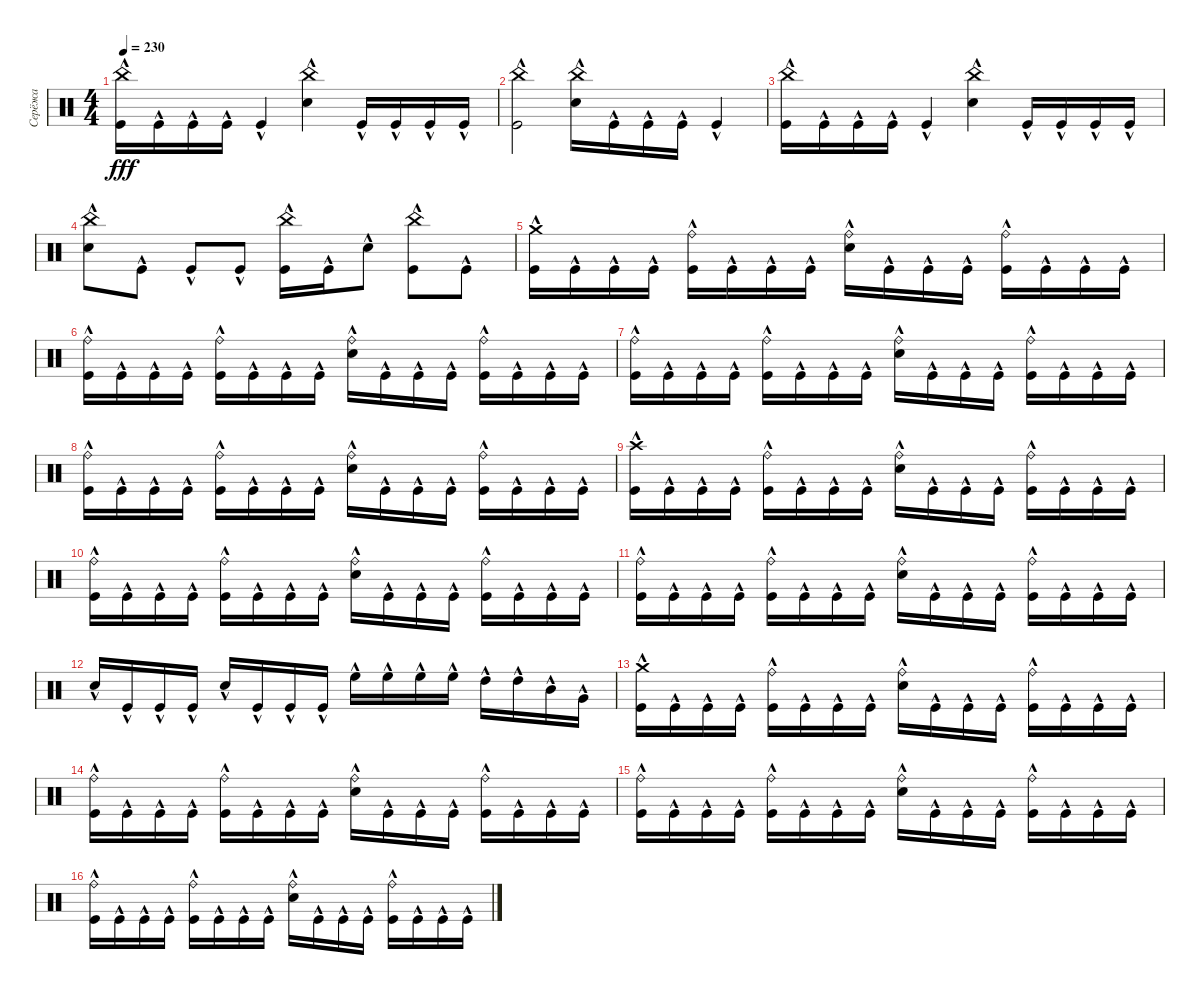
\track ("Серёжа" "Серёжа") {instrument percussion}
\staff {score}
\articulation defaults
\ts (4 4)
\tempo 230
\clef neutral
\ks c
("China (hit)" "Kick (hit)"{hac}).16{dy fff} "Kick (hit)"{hac}.16 "Kick (hit)"{hac}.16 "Kick (hit)"{hac}.16 "Kick (hit)"{hac}.4 ("China (hit)" "Snare (hit) 2"{hac}).4 "Kick (hit)"{hac}.16 "Kick (hit)"{hac}.16 "Kick (hit)"{hac}.16 "Kick (hit)"{hac}.16 |
("China (hit)" "Kick (hit)"{hac}).2 ("China (hit)" "Snare (hit) 2"{hac}).16 "Kick (hit)"{hac}.16 "Kick (hit)"{hac}.16 "Kick (hit)"{hac}.16 "Kick (hit)"{hac}.4 |
("China (hit)" "Kick (hit)"{hac}).16 "Kick (hit)"{hac}.16 "Kick (hit)"{hac}.16 "Kick (hit)"{hac}.16 "Kick (hit)"{hac}.4 ("China (hit)" "Snare (hit) 2"{hac}).4 "Kick (hit)"{hac}.16 "Kick (hit)"{hac}.16 "Kick (hit)"{hac}.16 "Kick (hit)"{hac}.16 |
("China (hit)" "Snare (hit) 2"{hac}).8 "Kick (hit)"{hac}.8 "Kick (hit)"{hac}.8 "Kick (hit)"{hac}.8 ("China (hit)" "Kick (hit)"{hac}).16 "Kick (hit)"{hac}.16 "Snare (hit) 2"{hac}.8 ("China (hit)" "Kick (hit)"{hac}).8 "Kick (hit)"{hac}.8 |
("Crash medium (hit)"{hac} "Kick (hit)"{hac}).16 "Kick (hit)"{hac}.16 "Kick (hit)"{hac}.16 "Kick (hit)"{hac}.16 ("Ride (bell)" "Kick (hit)"{hac}).16 "Kick (hit)"{hac}.16 "Kick (hit)"{hac}.16 "Kick (hit)"{hac}.16 ("Ride (bell)" "Snare (hit) 2"{hac}).16 "Kick (hit)"{hac}.16 "Kick (hit)"{hac}.16 "Kick (hit)"{hac}.16 ("Ride (bell)" "Kick (hit)"{hac}).16 "Kick (hit)"{hac}.16 "Kick (hit)"{hac}.16 "Kick (hit)"{hac}.16 |
("Ride (bell)" "Kick (hit)"{hac}).16 "Kick (hit)"{hac}.16 "Kick (hit)"{hac}.16 "Kick (hit)"{hac}.16 ("Ride (bell)" "Kick (hit)"{hac}).16 "Kick (hit)"{hac}.16 "Kick (hit)"{hac}.16 "Kick (hit)"{hac}.16 ("Ride (bell)" "Snare (hit) 2"{hac}).16 "Kick (hit)"{hac}.16 "Kick (hit)"{hac}.16 "Kick (hit)"{hac}.16 ("Ride (bell)" "Kick (hit)"{hac}).16 "Kick (hit)"{hac}.16 "Kick (hit)"{hac}.16 "Kick (hit)"{hac}.16 |
("Ride (bell)" "Kick (hit)"{hac}).16 "Kick (hit)"{hac}.16 "Kick (hit)"{hac}.16 "Kick (hit)"{hac}.16 ("Ride (bell)" "Kick (hit)"{hac}).16 "Kick (hit)"{hac}.16 "Kick (hit)"{hac}.16 "Kick (hit)"{hac}.16 ("Ride (bell)" "Snare (hit) 2"{hac}).16 "Kick (hit)"{hac}.16 "Kick (hit)"{hac}.16 "Kick (hit)"{hac}.16 ("Ride (bell)" "Kick (hit)"{hac}).16 "Kick (hit)"{hac}.16 "Kick (hit)"{hac}.16 "Kick (hit)"{hac}.16 |
("Ride (bell)" "Kick (hit)"{hac}).16 "Kick (hit)"{hac}.16 "Kick (hit)"{hac}.16 "Kick (hit)"{hac}.16 ("Ride (bell)" "Kick (hit)"{hac}).16 "Kick (hit)"{hac}.16 "Kick (hit)"{hac}.16 "Kick (hit)"{hac}.16 ("Ride (bell)" "Snare (hit) 2"{hac}).16 "Kick (hit)"{hac}.16 "Kick (hit)"{hac}.16 "Kick (hit)"{hac}.16 ("Ride (bell)" "Kick (hit)"{hac}).16 "Kick (hit)"{hac}.16 "Kick (hit)"{hac}.16 "Kick (hit)"{hac}.16 |
("Crash high (hit)"{hac} "Kick (hit)"{hac}).16 "Kick (hit)"{hac}.16 "Kick (hit)"{hac}.16 "Kick (hit)"{hac}.16 ("Ride (bell)" "Kick (hit)"{hac}).16 "Kick (hit)"{hac}.16 "Kick (hit)"{hac}.16 "Kick (hit)"{hac}.16 ("Ride (bell)" "Snare (hit) 2"{hac}).16 "Kick (hit)"{hac}.16 "Kick (hit)"{hac}.16 "Kick (hit)"{hac}.16 ("Ride (bell)" "Kick (hit)"{hac}).16 "Kick (hit)"{hac}.16 "Kick (hit)"{hac}.16 "Kick (hit)"{hac}.16 |
("Ride (bell)" "Kick (hit)"{hac}).16 "Kick (hit)"{hac}.16 "Kick (hit)"{hac}.16 "Kick (hit)"{hac}.16 ("Ride (bell)" "Kick (hit)"{hac}).16 "Kick (hit)"{hac}.16 "Kick (hit)"{hac}.16 "Kick (hit)"{hac}.16 ("Ride (bell)" "Snare (hit) 2"{hac}).16 "Kick (hit)"{hac}.16 "Kick (hit)"{hac}.16 "Kick (hit)"{hac}.16 ("Ride (bell)" "Kick (hit)"{hac}).16 "Kick (hit)"{hac}.16 "Kick (hit)"{hac}.16 "Kick (hit)"{hac}.16 |
("Ride (bell)" "Kick (hit)"{hac}).16 "Kick (hit)"{hac}.16 "Kick (hit)"{hac}.16 "Kick (hit)"{hac}.16 ("Ride (bell)" "Kick (hit)"{hac}).16 "Kick (hit)"{hac}.16 "Kick (hit)"{hac}.16 "Kick (hit)"{hac}.16 ("Ride (bell)" "Snare (hit) 2"{hac}).16 "Kick (hit)"{hac}.16 "Kick (hit)"{hac}.16 "Kick (hit)"{hac}.16 ("Ride (bell)" "Kick (hit)"{hac}).16 "Kick (hit)"{hac}.16 "Kick (hit)"{hac}.16 "Kick (hit)"{hac}.16 |
"Snare (hit) 2"{hac}.16 "Kick (hit)"{hac}.16 "Kick (hit)"{hac}.16 "Kick (hit)"{hac}.16 "Snare (hit) 2"{hac}.16 "Kick (hit)"{hac}.16 "Kick (hit)"{hac}.16 "Kick (hit)"{hac}.16 "High Floor Tom (hit)"{hac}.16 "High Floor Tom (hit)"{hac}.16 "High Floor Tom (hit)"{hac}.16 "High Floor Tom (hit)"{hac}.16 "High Tom (hit)"{hac}.16 "High Tom (hit)"{hac}.16 "Mid Tom (hit)"{hac}.16 "Very Low Tom (hit)"{hac}.16 |
("Crash medium (hit)"{hac} "Kick (hit)"{hac}).16 "Kick (hit)"{hac}.16 "Kick (hit)"{hac}.16 "Kick (hit)"{hac}.16 ("Ride (bell)" "Kick (hit)"{hac}).16 "Kick (hit)"{hac}.16 "Kick (hit)"{hac}.16 "Kick (hit)"{hac}.16 ("Ride (bell)" "Snare (hit) 2"{hac}).16 "Kick (hit)"{hac}.16 "Kick (hit)"{hac}.16 "Kick (hit)"{hac}.16 ("Ride (bell)" "Kick (hit)"{hac}).16 "Kick (hit)"{hac}.16 "Kick (hit)"{hac}.16 "Kick (hit)"{hac}.16 |
("Ride (bell)" "Kick (hit)"{hac}).16 "Kick (hit)"{hac}.16 "Kick (hit)"{hac}.16 "Kick (hit)"{hac}.16 ("Ride (bell)" "Kick (hit)"{hac}).16 "Kick (hit)"{hac}.16 "Kick (hit)"{hac}.16 "Kick (hit)"{hac}.16 ("Ride (bell)" "Snare (hit) 2"{hac}).16 "Kick (hit)"{hac}.16 "Kick (hit)"{hac}.16 "Kick (hit)"{hac}.16 ("Ride (bell)" "Kick (hit)"{hac}).16 "Kick (hit)"{hac}.16 "Kick (hit)"{hac}.16 "Kick (hit)"{hac}.16 |
("Ride (bell)" "Kick (hit)"{hac}).16 "Kick (hit)"{hac}.16 "Kick (hit)"{hac}.16 "Kick (hit)"{hac}.16 ("Ride (bell)" "Kick (hit)"{hac}).16 "Kick (hit)"{hac}.16 "Kick (hit)"{hac}.16 "Kick (hit)"{hac}.16 ("Ride (bell)" "Snare (hit) 2"{hac}).16 "Kick (hit)"{hac}.16 "Kick (hit)"{hac}.16 "Kick (hit)"{hac}.16 ("Ride (bell)" "Kick (hit)"{hac}).16 "Kick (hit)"{hac}.16 "Kick (hit)"{hac}.16 "Kick (hit)"{hac}.16 |
("Ride (bell)" "Kick (hit)"{hac}).16 "Kick (hit)"{hac}.16 "Kick (hit)"{hac}.16 "Kick (hit)"{hac}.16 ("Ride (bell)" "Kick (hit)"{hac}).16 "Kick (hit)"{hac}.16 "Kick (hit)"{hac}.16 "Kick (hit)"{hac}.16 ("Ride (bell)" "Snare (hit) 2"{hac}).16 "Kick (hit)"{hac}.16 "Kick (hit)"{hac}.16 "Kick (hit)"{hac}.16 ("Ride (bell)" "Kick (hit)"{hac}).16 "Kick (hit)"{hac}.16 "Kick (hit)"{hac}.16 "Kick (hit)"{hac}.16
